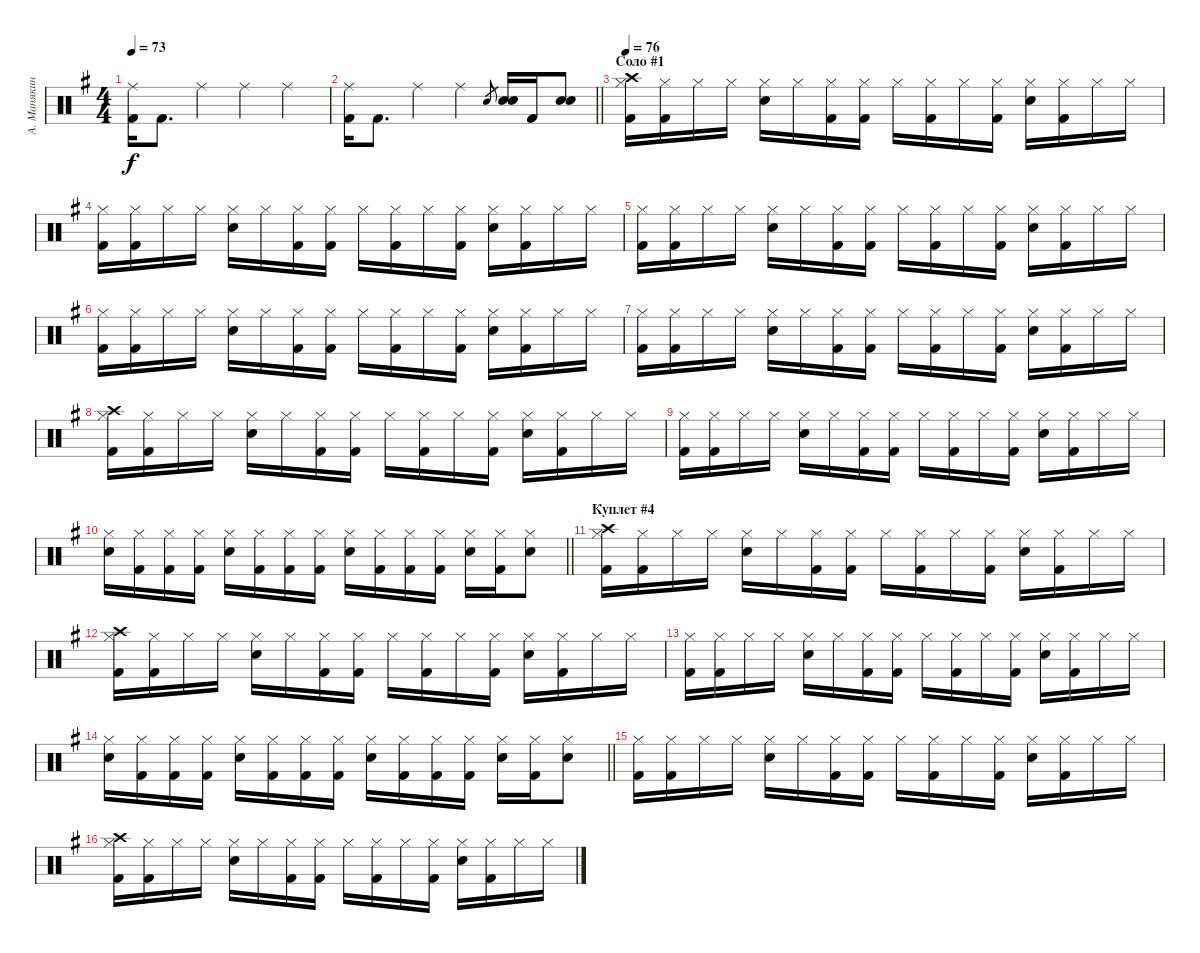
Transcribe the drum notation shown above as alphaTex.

\track ("А. Манякин" "А. Манякин") {instrument percussion}
\staff {score}
\articulation defaults
\ts (4 4)
\tempo 73
\clef neutral
\ks g
("Kick (hit) 2" "Ride (middle)").16{dy f} "Kick (hit) 2".8{d} "Ride (middle)".4 "Ride (middle)".4 "Ride (middle)".4 |
\barLineRight lightlight
("Kick (hit) 2" "Ride (middle)").16 "Kick (hit) 2".8{d} "Ride (middle)".4 "Ride (middle)".4 "Electric Snare (hit)".8{gr} ("Electric Snare (hit)" "Electric Snare (hit)").16 "Kick (hit) 2".16 ("Electric Snare (hit)" "Electric Snare (hit)").8 |
\section ("" "Соло #1")
\tempo 76
("Kick (hit) 2" "Hi-Hat (closed)" "Crash high (hit)").16 ("Kick (hit) 2" "Hi-Hat (closed)").16 "Hi-Hat (closed)".16 "Hi-Hat (closed)".16 ("Electric Snare (hit)" "Hi-Hat (closed)").16 "Hi-Hat (closed)".16 ("Kick (hit) 2" "Hi-Hat (closed)").16 ("Kick (hit) 2" "Hi-Hat (closed)").16 "Hi-Hat (closed)".16 ("Kick (hit) 2" "Hi-Hat (closed)").16 "Hi-Hat (closed)".16 ("Kick (hit) 2" "Hi-Hat (closed)").16 ("Electric Snare (hit)" "Hi-Hat (closed)").16 ("Kick (hit) 2" "Hi-Hat (closed)").16 "Hi-Hat (closed)".16 "Hi-Hat (closed)".16 |
("Kick (hit) 2" "Hi-Hat (closed)").16 ("Kick (hit) 2" "Hi-Hat (closed)").16 "Hi-Hat (closed)".16 "Hi-Hat (closed)".16 ("Electric Snare (hit)" "Hi-Hat (closed)").16 "Hi-Hat (closed)".16 ("Kick (hit) 2" "Hi-Hat (closed)").16 ("Kick (hit) 2" "Hi-Hat (closed)").16 "Hi-Hat (closed)".16 ("Kick (hit) 2" "Hi-Hat (closed)").16 "Hi-Hat (closed)".16 ("Kick (hit) 2" "Hi-Hat (closed)").16 ("Electric Snare (hit)" "Hi-Hat (closed)").16 ("Kick (hit) 2" "Hi-Hat (closed)").16 "Hi-Hat (closed)".16 "Hi-Hat (closed)".16 |
("Kick (hit) 2" "Hi-Hat (closed)").16 ("Kick (hit) 2" "Hi-Hat (closed)").16 "Hi-Hat (closed)".16 "Hi-Hat (closed)".16 ("Electric Snare (hit)" "Hi-Hat (closed)").16 "Hi-Hat (closed)".16 ("Kick (hit) 2" "Hi-Hat (closed)").16 ("Kick (hit) 2" "Hi-Hat (closed)").16 "Hi-Hat (closed)".16 ("Kick (hit) 2" "Hi-Hat (closed)").16 "Hi-Hat (closed)".16 ("Kick (hit) 2" "Hi-Hat (closed)").16 ("Electric Snare (hit)" "Hi-Hat (closed)").16 ("Kick (hit) 2" "Hi-Hat (closed)").16 "Hi-Hat (closed)".16 "Hi-Hat (closed)".16 |
("Kick (hit) 2" "Hi-Hat (closed)").16 ("Kick (hit) 2" "Hi-Hat (closed)").16 "Hi-Hat (closed)".16 "Hi-Hat (closed)".16 ("Electric Snare (hit)" "Hi-Hat (closed)").16 "Hi-Hat (closed)".16 ("Kick (hit) 2" "Hi-Hat (closed)").16 ("Kick (hit) 2" "Hi-Hat (closed)").16 "Hi-Hat (closed)".16 ("Kick (hit) 2" "Hi-Hat (closed)").16 "Hi-Hat (closed)".16 ("Kick (hit) 2" "Hi-Hat (closed)").16 ("Electric Snare (hit)" "Hi-Hat (closed)").16 ("Kick (hit) 2" "Hi-Hat (closed)").16 "Hi-Hat (closed)".16 "Hi-Hat (closed)".16 |
("Kick (hit) 2" "Hi-Hat (closed)").16 ("Kick (hit) 2" "Hi-Hat (closed)").16 "Hi-Hat (closed)".16 "Hi-Hat (closed)".16 ("Electric Snare (hit)" "Hi-Hat (closed)").16 "Hi-Hat (closed)".16 ("Kick (hit) 2" "Hi-Hat (closed)").16 ("Kick (hit) 2" "Hi-Hat (closed)").16 "Hi-Hat (closed)".16 ("Kick (hit) 2" "Hi-Hat (closed)").16 "Hi-Hat (closed)".16 ("Kick (hit) 2" "Hi-Hat (closed)").16 ("Electric Snare (hit)" "Hi-Hat (closed)").16 ("Kick (hit) 2" "Hi-Hat (closed)").16 "Hi-Hat (closed)".16 "Hi-Hat (closed)".16 |
("Kick (hit) 2" "Hi-Hat (closed)" "Crash high (hit)").16 ("Kick (hit) 2" "Hi-Hat (closed)").16 "Hi-Hat (closed)".16 "Hi-Hat (closed)".16 ("Electric Snare (hit)" "Hi-Hat (closed)").16 "Hi-Hat (closed)".16 ("Kick (hit) 2" "Hi-Hat (closed)").16 ("Kick (hit) 2" "Hi-Hat (closed)").16 "Hi-Hat (closed)".16 ("Kick (hit) 2" "Hi-Hat (closed)").16 "Hi-Hat (closed)".16 ("Kick (hit) 2" "Hi-Hat (closed)").16 ("Electric Snare (hit)" "Hi-Hat (closed)").16 ("Kick (hit) 2" "Hi-Hat (closed)").16 "Hi-Hat (closed)".16 "Hi-Hat (closed)".16 |
("Kick (hit) 2" "Hi-Hat (closed)").16 ("Kick (hit) 2" "Hi-Hat (closed)").16 "Hi-Hat (closed)".16 "Hi-Hat (closed)".16 ("Electric Snare (hit)" "Hi-Hat (closed)").16 "Hi-Hat (closed)".16 ("Kick (hit) 2" "Hi-Hat (closed)").16 ("Kick (hit) 2" "Hi-Hat (closed)").16 "Hi-Hat (closed)".16 ("Kick (hit) 2" "Hi-Hat (closed)").16 "Hi-Hat (closed)".16 ("Kick (hit) 2" "Hi-Hat (closed)").16 ("Electric Snare (hit)" "Hi-Hat (closed)").16 ("Kick (hit) 2" "Hi-Hat (closed)").16 "Hi-Hat (closed)".16 "Hi-Hat (closed)".16 |
\barLineRight lightlight
("Electric Snare (hit)" "Hi-Hat (closed)").16 ("Kick (hit) 2" "Hi-Hat (closed)").16 ("Kick (hit) 2" "Hi-Hat (closed)").16 ("Kick (hit) 2" "Hi-Hat (closed)").16 ("Electric Snare (hit)" "Hi-Hat (closed)").16 ("Kick (hit) 2" "Hi-Hat (closed)").16 ("Kick (hit) 2" "Hi-Hat (closed)").16 ("Kick (hit) 2" "Hi-Hat (closed)").16 ("Electric Snare (hit)" "Hi-Hat (closed)").16 ("Kick (hit) 2" "Hi-Hat (closed)").16 ("Kick (hit) 2" "Hi-Hat (closed)").16 ("Kick (hit) 2" "Hi-Hat (closed)").16 ("Electric Snare (hit)" "Hi-Hat (closed)").16 ("Kick (hit) 2" "Hi-Hat (closed)").16 ("Electric Snare (hit)" "Hi-Hat (closed)").8 |
\section ("" "Куплет #4")
("Kick (hit) 2" "Hi-Hat (closed)" "Crash high (hit)").16 ("Kick (hit) 2" "Hi-Hat (closed)").16 "Hi-Hat (closed)".16 "Hi-Hat (closed)".16 ("Electric Snare (hit)" "Hi-Hat (closed)").16 "Hi-Hat (closed)".16 ("Kick (hit) 2" "Hi-Hat (closed)").16 ("Kick (hit) 2" "Hi-Hat (closed)").16 "Hi-Hat (closed)".16 ("Kick (hit) 2" "Hi-Hat (closed)").16 "Hi-Hat (closed)".16 ("Kick (hit) 2" "Hi-Hat (closed)").16 ("Electric Snare (hit)" "Hi-Hat (closed)").16 ("Kick (hit) 2" "Hi-Hat (closed)").16 "Hi-Hat (closed)".16 "Hi-Hat (closed)".16 |
("Kick (hit) 2" "Hi-Hat (closed)" "Crash high (hit)").16 ("Kick (hit) 2" "Hi-Hat (closed)").16 "Hi-Hat (closed)".16 "Hi-Hat (closed)".16 ("Electric Snare (hit)" "Hi-Hat (closed)").16 "Hi-Hat (closed)".16 ("Kick (hit) 2" "Hi-Hat (closed)").16 ("Kick (hit) 2" "Hi-Hat (closed)").16 "Hi-Hat (closed)".16 ("Kick (hit) 2" "Hi-Hat (closed)").16 "Hi-Hat (closed)".16 ("Kick (hit) 2" "Hi-Hat (closed)").16 ("Electric Snare (hit)" "Hi-Hat (closed)").16 ("Kick (hit) 2" "Hi-Hat (closed)").16 "Hi-Hat (closed)".16 "Hi-Hat (closed)".16 |
("Kick (hit) 2" "Hi-Hat (closed)").16 ("Kick (hit) 2" "Hi-Hat (closed)").16 "Hi-Hat (closed)".16 "Hi-Hat (closed)".16 ("Electric Snare (hit)" "Hi-Hat (closed)").16 "Hi-Hat (closed)".16 ("Kick (hit) 2" "Hi-Hat (closed)").16 ("Kick (hit) 2" "Hi-Hat (closed)").16 "Hi-Hat (closed)".16 ("Kick (hit) 2" "Hi-Hat (closed)").16 "Hi-Hat (closed)".16 ("Kick (hit) 2" "Hi-Hat (closed)").16 ("Electric Snare (hit)" "Hi-Hat (closed)").16 ("Kick (hit) 2" "Hi-Hat (closed)").16 "Hi-Hat (closed)".16 "Hi-Hat (closed)".16 |
\barLineRight lightlight
("Electric Snare (hit)" "Hi-Hat (closed)").16 ("Kick (hit) 2" "Hi-Hat (closed)").16 ("Kick (hit) 2" "Hi-Hat (closed)").16 ("Kick (hit) 2" "Hi-Hat (closed)").16 ("Electric Snare (hit)" "Hi-Hat (closed)").16 ("Kick (hit) 2" "Hi-Hat (closed)").16 ("Kick (hit) 2" "Hi-Hat (closed)").16 ("Kick (hit) 2" "Hi-Hat (closed)").16 ("Electric Snare (hit)" "Hi-Hat (closed)").16 ("Kick (hit) 2" "Hi-Hat (closed)").16 ("Kick (hit) 2" "Hi-Hat (closed)").16 ("Kick (hit) 2" "Hi-Hat (closed)").16 ("Electric Snare (hit)" "Hi-Hat (closed)").16 ("Kick (hit) 2" "Hi-Hat (closed)").16 ("Electric Snare (hit)" "Hi-Hat (closed)").8 |
("Kick (hit) 2" "Hi-Hat (closed)").16 ("Kick (hit) 2" "Hi-Hat (closed)").16 "Hi-Hat (closed)".16 "Hi-Hat (closed)".16 ("Electric Snare (hit)" "Hi-Hat (closed)").16 "Hi-Hat (closed)".16 ("Kick (hit) 2" "Hi-Hat (closed)").16 ("Kick (hit) 2" "Hi-Hat (closed)").16 "Hi-Hat (closed)".16 ("Kick (hit) 2" "Hi-Hat (closed)").16 "Hi-Hat (closed)".16 ("Kick (hit) 2" "Hi-Hat (closed)").16 ("Electric Snare (hit)" "Hi-Hat (closed)").16 ("Kick (hit) 2" "Hi-Hat (closed)").16 "Hi-Hat (closed)".16 "Hi-Hat (closed)".16 |
("Kick (hit) 2" "Hi-Hat (closed)" "Crash high (hit)").16 ("Kick (hit) 2" "Hi-Hat (closed)").16 "Hi-Hat (closed)".16 "Hi-Hat (closed)".16 ("Electric Snare (hit)" "Hi-Hat (closed)").16 "Hi-Hat (closed)".16 ("Kick (hit) 2" "Hi-Hat (closed)").16 ("Kick (hit) 2" "Hi-Hat (closed)").16 "Hi-Hat (closed)".16 ("Kick (hit) 2" "Hi-Hat (closed)").16 "Hi-Hat (closed)".16 ("Kick (hit) 2" "Hi-Hat (closed)").16 ("Electric Snare (hit)" "Hi-Hat (closed)").16 ("Kick (hit) 2" "Hi-Hat (closed)").16 "Hi-Hat (closed)".16 "Hi-Hat (closed)".16
